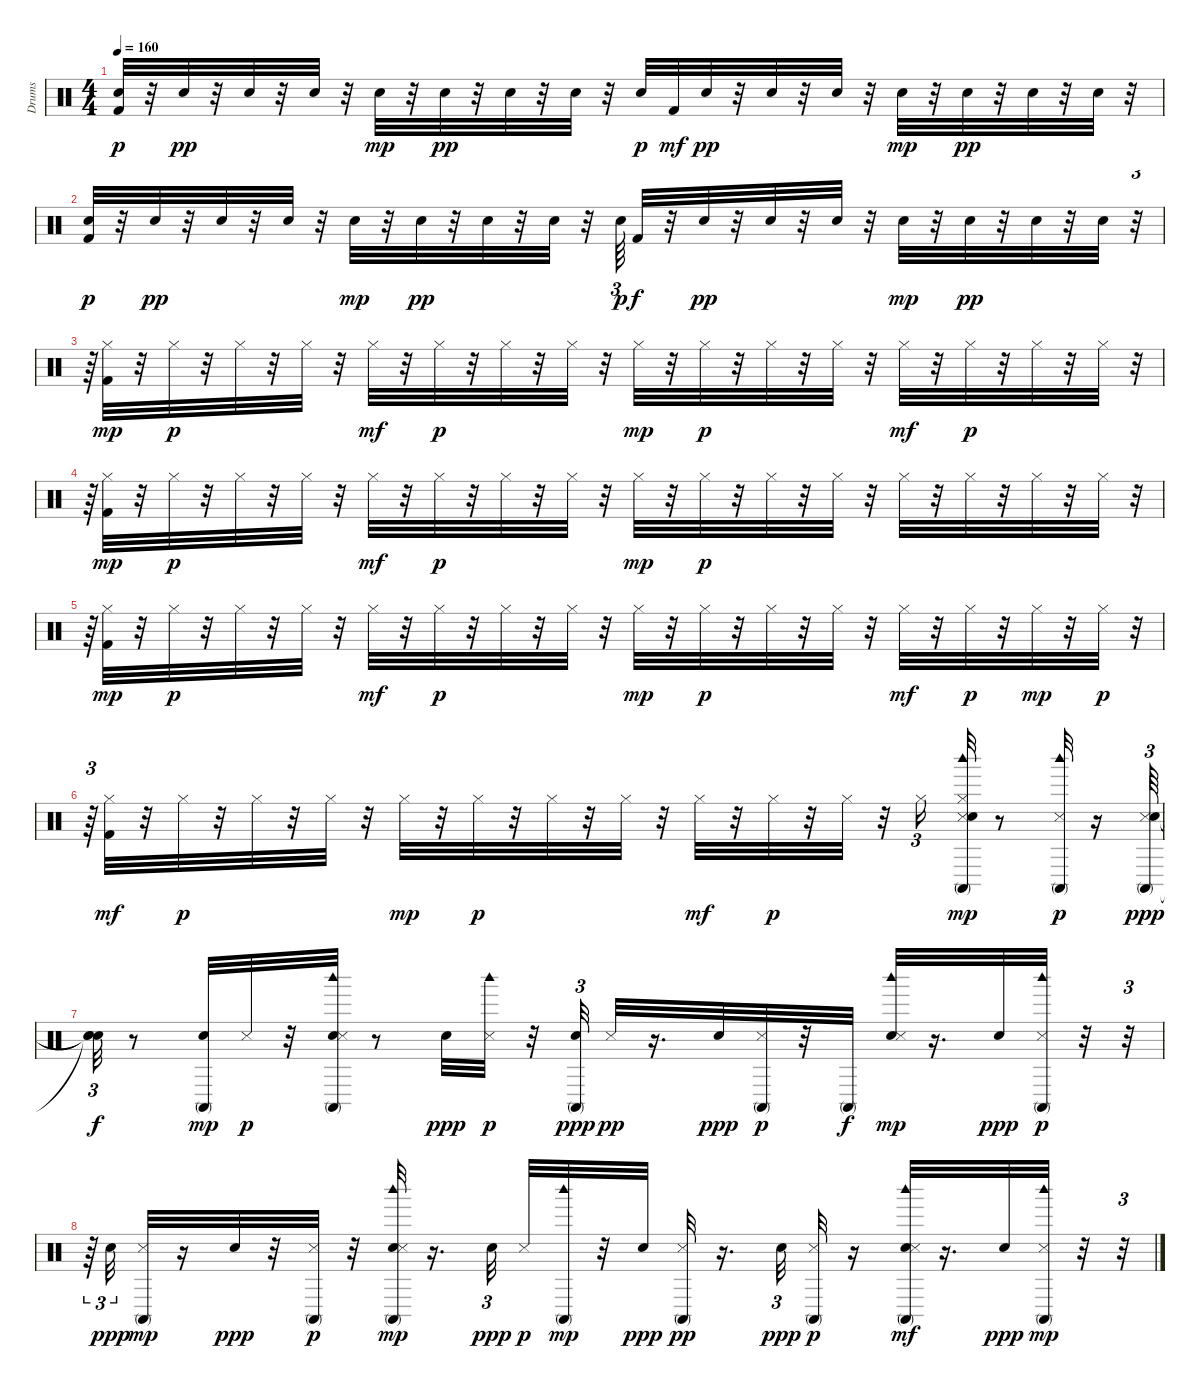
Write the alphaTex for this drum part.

\track ("Drums" "Drums") {instrument percussion}
\staff {score}
\articulation defaults
\ts (4 4)
\tempo 160
\clef neutral
\ks c
("Kick (hit) 2" "Electric Snare (hit)").32{dy p} r.32 "Electric Snare (hit)".32{dy pp} r.32 "Electric Snare (hit)".32 r.32 "Electric Snare (hit)".32 r.32 "Electric Snare (hit)".32{dy mp} r.32 "Electric Snare (hit)".32{dy pp} r.32 "Electric Snare (hit)".32 r.32 "Electric Snare (hit)".32 r.32 "Electric Snare (hit)".32{dy p} "Kick (hit) 2".32{dy mf} "Electric Snare (hit)".32{dy pp} r.32 "Electric Snare (hit)".32 r.32 "Electric Snare (hit)".32 r.32 "Electric Snare (hit)".32{dy mp} r.32 "Electric Snare (hit)".32{dy pp} r.32 "Electric Snare (hit)".32 r.32 "Electric Snare (hit)".32 r.32 |
("Electric Snare (hit)" "Kick (hit) 2").32{dy p} r.32 "Electric Snare (hit)".32{dy pp} r.32 "Electric Snare (hit)".32 r.32 "Electric Snare (hit)".32 r.32 "Electric Snare (hit)".32{dy mp} r.32 "Electric Snare (hit)".32{dy pp} r.32 "Electric Snare (hit)".32 r.32 "Electric Snare (hit)".32 r.32 "Electric Snare (hit)".64{tu (3 2) dy p} "Kick (hit) 2".32{dy f} r.32 "Electric Snare (hit)".32{dy pp} r.32 "Electric Snare (hit)".32 r.32 "Electric Snare (hit)".32 r.32 "Electric Snare (hit)".32{dy mp} r.32 "Electric Snare (hit)".32{dy pp} r.32 "Electric Snare (hit)".32 r.32 "Electric Snare (hit)".32 r.32{tu (3 2)} |
r.64{tu (3 2)} ("Kick (hit) 2" "Hi-Hat (closed)").32{dy mp} r.32 "Hi-Hat (closed)".32{dy p} r.32 "Hi-Hat (closed)".32 r.32 "Hi-Hat (closed)".32 r.32 "Hi-Hat (closed)".32{dy mf} r.32 "Hi-Hat (closed)".32{dy p} r.32 "Hi-Hat (closed)".32 r.32 "Hi-Hat (closed)".32 r.32 "Hi-Hat (closed)".32{dy mp} r.32 "Hi-Hat (closed)".32{dy p} r.32 "Hi-Hat (closed)".32 r.32 "Hi-Hat (closed)".32 r.32 "Hi-Hat (closed)".32{dy mf} r.32 "Hi-Hat (closed)".32{dy p} r.32 "Hi-Hat (closed)".32 r.32 "Hi-Hat (closed)".32 r.32{tu (3 2)} |
r.64{tu (3 2)} ("Kick (hit) 2" "Hi-Hat (closed)").32{dy mp} r.32 "Hi-Hat (closed)".32{dy p} r.32 "Hi-Hat (closed)".32 r.32 "Hi-Hat (closed)".32 r.32 "Hi-Hat (closed)".32{dy mf} r.32 "Hi-Hat (closed)".32{dy p} r.32 "Hi-Hat (closed)".32 r.32 "Hi-Hat (closed)".32 r.32 "Hi-Hat (closed)".32{dy mp} r.32 "Hi-Hat (closed)".32{dy p} r.32 "Hi-Hat (closed)".32 r.32 "Hi-Hat (closed)".32 r.32 "Hi-Hat (closed)".32 r.32 "Hi-Hat (closed)".32 r.32 "Hi-Hat (closed)".32 r.32 "Hi-Hat (closed)".32 r.32{tu (3 2)} |
r.64{tu (3 2)} ("Kick (hit) 2" "Hi-Hat (closed)").32{dy mp} r.32 "Hi-Hat (closed)".32{dy p} r.32 "Hi-Hat (closed)".32 r.32 "Hi-Hat (closed)".32 r.32 "Hi-Hat (closed)".32{dy mf} r.32 "Hi-Hat (closed)".32{dy p} r.32 "Hi-Hat (closed)".32 r.32 "Hi-Hat (closed)".32 r.32 "Hi-Hat (closed)".32{dy mp} r.32 "Hi-Hat (closed)".32{dy p} r.32 "Hi-Hat (closed)".32 r.32 "Hi-Hat (closed)".32 r.32 "Hi-Hat (closed)".32{dy mf} r.32 "Hi-Hat (closed)".32{dy p} r.32 "Hi-Hat (closed)".32{dy mp} r.32 "Hi-Hat (closed)".32{dy p} r.32{tu (3 2)} |
r.64{tu (3 2)} ("Kick (hit) 2" "Hi-Hat (closed)").32{dy mf} r.32 "Hi-Hat (closed)".32{dy p} r.32 "Hi-Hat (closed)".32 r.32 "Hi-Hat (closed)".32 r.32 "Hi-Hat (closed)".32{dy mp} r.32 "Hi-Hat (closed)".32{dy p} r.32 "Hi-Hat (closed)".32 r.32 "Hi-Hat (closed)".32 r.32 "Hi-Hat (closed)".32{dy mf} r.32 "Hi-Hat (closed)".32{dy p} r.32 "Hi-Hat (closed)".32 r.32 "Hi-Hat (closed)".16{tu (3 2)} ("Snare (side stick) 3" "Woodblock high (hit)" "Hand Clap (hit)" "Hi-Hat (closed)" "Conga high (mute)").32{dy mp} r.8 ("Conga high (mute)" "Snare (side stick) 3" "Woodblock high (hit)").32{dy p} r.16 ("Conga high (mute)" "Snare (side stick) 3" "Hand Clap (hit)").64{tu (3 2) dy ppp} |
("Snare (hit)"{t} "Snare (hit)"{t} "Snare (hit)"{t}).32{tu (3 2) dy f} r.8 ("Hand Clap (hit)" "Conga high (mute)").32{dy mp} "Snare (side stick) 3".32{dy p} r.32 ("Conga high (mute)" "Woodblock high (hit)" "Hand Clap (hit)" "Snare (side stick) 3").32 r.8 "Hand Clap (hit)".32{dy ppp} ("Snare (side stick) 3" "Woodblock high (hit)").32{dy p} r.32 ("Conga high (mute)" "Hand Clap (hit)").32{tu (3 2) dy ppp} "Snare (side stick) 3".32{dy pp} r.16{d} "Hand Clap (hit)".32{dy ppp} ("Conga high (mute)" "Snare (side stick) 3").32{dy p} r.32 "Conga high (mute)".32{dy f} ("Hand Clap (hit)" "Snare (side stick) 3" "Woodblock high (hit)").32{dy mp} r.16{d} "Hand Clap (hit)".32{dy ppp} ("Conga high (mute)" "Snare (side stick) 3" "Woodblock high (hit)").32{dy p} r.32 r.32{tu (3 2)} |
r.64{tu (3 2)} "Hand Clap (hit)".32{tu (3 2) dy ppp} ("Conga high (mute)" "Snare (side stick) 3").32{dy mp} r.16 "Hand Clap (hit)".32{dy ppp} r.32 ("Snare (side stick) 3" "Conga high (mute)").32{dy p} r.32 ("Hand Clap (hit)" "Woodblock high (hit)" "Conga high (mute)" "Snare (side stick) 3").32{dy mp} r.16{d} "Hand Clap (hit)".32{tu (3 2) dy ppp beam splitsecondary} "Snare (side stick) 3".32{dy p} ("Conga high (mute)" "Woodblock high (hit)").32{dy mp} r.32 "Hand Clap (hit)".32{dy ppp} ("Conga high (mute)" "Snare (side stick) 3").32{dy pp} r.16{d} "Hand Clap (hit)".32{tu (3 2) dy ppp} ("Snare (side stick) 3" "Conga high (mute)").32{dy p} r.16 ("Hand Clap (hit)" "Conga high (mute)" "Woodblock high (hit)" "Snare (side stick) 3").32{dy mf} r.16{d} "Hand Clap (hit)".32{dy ppp} ("Snare (side stick) 3" "Conga high (mute)" "Woodblock high (hit)").32{dy mp} r.32 r.32{tu (3 2)}
